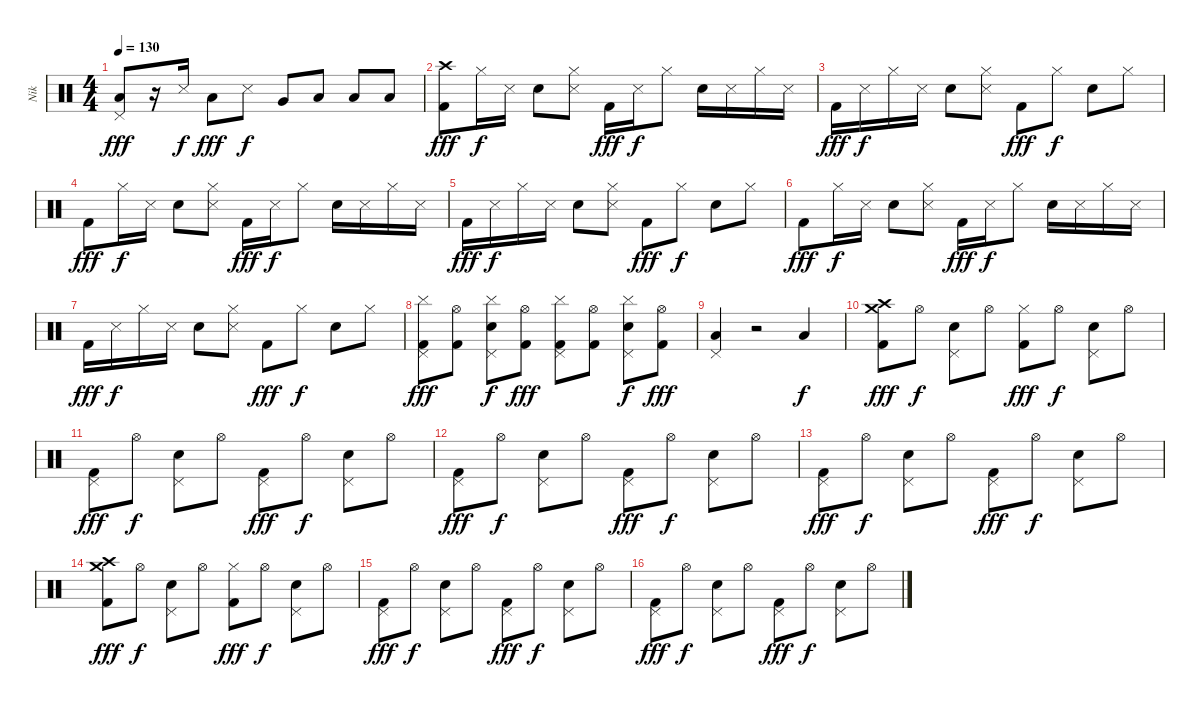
\track ("Nik" "Nik") {instrument percussion}
\staff {score}
\articulation defaults
\ts (4 4)
\tempo 130
\clef neutral
\ks c
("Pedal Hi-Hat (hit)" "Low Floor Tom (hit)").8{dy fff} r.16 "Snare (side stick) 3".16{dy f} "Low Floor Tom (hit)".8{dy fff} "Snare (side stick) 3".8{dy f} "Very Low Tom (hit)".8 "Low Tom (hit)".8 "Low Tom (hit)".8 "Low Floor Tom (hit)".8 |
("Crash high (hit)" "Kick (hit) 2").8{dy fff} "Hi-Hat (closed)".16{dy f} "Snare (side stick) 3".16 "Electric Snare (hit)".8 ("Hi-Hat (closed)" "Snare (side stick) 3").8 "Kick (hit) 2".16{dy fff} "Snare (side stick) 3".16{dy f} "Hi-Hat (closed)".8 "Electric Snare (hit)".16 "Snare (side stick) 3".16 "Hi-Hat (closed)".16 "Snare (side stick) 3".16 |
"Kick (hit) 2".16{dy fff} "Snare (side stick) 3".16{dy f} "Hi-Hat (closed)".16 "Snare (side stick) 3".16 "Electric Snare (hit)".8 ("Hi-Hat (closed)" "Snare (side stick) 3").8 "Kick (hit) 2".8{dy fff} "Hi-Hat (closed)".8{dy f} "Electric Snare (hit)".8 "Hi-Hat (closed)".8 |
"Kick (hit) 2".8{dy fff} "Hi-Hat (closed)".16{dy f} "Snare (side stick) 3".16 "Electric Snare (hit)".8 ("Hi-Hat (closed)" "Snare (side stick) 3").8 "Kick (hit) 2".16{dy fff} "Snare (side stick) 3".16{dy f} "Hi-Hat (closed)".8 "Electric Snare (hit)".16 "Snare (side stick) 3".16 "Hi-Hat (closed)".16 "Snare (side stick) 3".16 |
"Kick (hit) 2".16{dy fff} "Snare (side stick) 3".16{dy f} "Hi-Hat (closed)".16 "Snare (side stick) 3".16 "Electric Snare (hit)".8 ("Hi-Hat (closed)" "Snare (side stick) 3").8 "Kick (hit) 2".8{dy fff} "Hi-Hat (closed)".8{dy f} "Electric Snare (hit)".8 "Hi-Hat (closed)".8 |
"Kick (hit) 2".8{dy fff} "Hi-Hat (closed)".16{dy f} "Snare (side stick) 3".16 "Electric Snare (hit)".8 ("Hi-Hat (closed)" "Snare (side stick) 3").8 "Kick (hit) 2".16{dy fff} "Snare (side stick) 3".16{dy f} "Hi-Hat (closed)".8 "Electric Snare (hit)".16 "Snare (side stick) 3".16 "Hi-Hat (closed)".16 "Snare (side stick) 3".16 |
"Kick (hit) 2".16{dy fff} "Snare (side stick) 3".16{dy f} "Hi-Hat (closed)".16 "Snare (side stick) 3".16 "Electric Snare (hit)".8 ("Hi-Hat (closed)" "Snare (side stick) 3").8 "Kick (hit) 2".8{dy fff} "Hi-Hat (closed)".8{dy f} "Electric Snare (hit)".8 "Hi-Hat (closed)".8 |
("Pedal Hi-Hat (hit)" "Kick (hit) 2" "Cymbal (hit)").8{dy fff} ("Hi-Hat (open)" "Kick (hit) 2").8 ("Pedal Hi-Hat (hit)" "Electric Snare (hit)" "Cymbal (hit)").8{dy f} ("Hi-Hat (open)" "Kick (hit) 2").8{dy fff} ("Pedal Hi-Hat (hit)" "Kick (hit) 2" "Cymbal (hit)").8 ("Hi-Hat (open)" "Kick (hit) 2").8 ("Pedal Hi-Hat (hit)" "Electric Snare (hit)" "Cymbal (hit)").8{dy f} ("Hi-Hat (open)" "Kick (hit) 2").8{dy fff} |
("Pedal Hi-Hat (hit)" "Low Floor Tom (hit)").4 r.2 "Low Floor Tom (hit)".4{dy f} |
("Crash high (hit)" "Crash medium (hit)" "Kick (hit) 2").8{dy fff} "Hi-Hat (open)".8{dy f} ("Pedal Hi-Hat (hit)" "Electric Snare (hit)").8 "Hi-Hat (open)".8 ("Hi-Hat (closed)" "Kick (hit) 2").8{dy fff} "Hi-Hat (open)".8{dy f} ("Pedal Hi-Hat (hit)" "Electric Snare (hit)").8 "Hi-Hat (open)".8 |
("Pedal Hi-Hat (hit)" "Kick (hit) 2").8{dy fff} "Hi-Hat (open)".8{dy f} ("Pedal Hi-Hat (hit)" "Electric Snare (hit)").8 "Hi-Hat (open)".8 ("Pedal Hi-Hat (hit)" "Kick (hit) 2").8{dy fff} "Hi-Hat (open)".8{dy f} ("Pedal Hi-Hat (hit)" "Electric Snare (hit)").8 "Hi-Hat (open)".8 |
("Pedal Hi-Hat (hit)" "Kick (hit) 2").8{dy fff} "Hi-Hat (open)".8{dy f} ("Pedal Hi-Hat (hit)" "Electric Snare (hit)").8 "Hi-Hat (open)".8 ("Pedal Hi-Hat (hit)" "Kick (hit) 2").8{dy fff} "Hi-Hat (open)".8{dy f} ("Pedal Hi-Hat (hit)" "Electric Snare (hit)").8 "Hi-Hat (open)".8 |
("Pedal Hi-Hat (hit)" "Kick (hit) 2").8{dy fff} "Hi-Hat (open)".8{dy f} ("Pedal Hi-Hat (hit)" "Electric Snare (hit)").8 "Hi-Hat (open)".8 ("Pedal Hi-Hat (hit)" "Kick (hit) 2").8{dy fff} "Hi-Hat (open)".8{dy f} ("Pedal Hi-Hat (hit)" "Electric Snare (hit)").8 "Hi-Hat (open)".8 |
("Crash high (hit)" "Crash medium (hit)" "Kick (hit) 2").8{dy fff} "Hi-Hat (open)".8{dy f} ("Pedal Hi-Hat (hit)" "Electric Snare (hit)").8 "Hi-Hat (open)".8 ("Hi-Hat (closed)" "Kick (hit) 2").8{dy fff} "Hi-Hat (open)".8{dy f} ("Pedal Hi-Hat (hit)" "Electric Snare (hit)").8 "Hi-Hat (open)".8 |
("Pedal Hi-Hat (hit)" "Kick (hit) 2").8{dy fff} "Hi-Hat (open)".8{dy f} ("Pedal Hi-Hat (hit)" "Electric Snare (hit)").8 "Hi-Hat (open)".8 ("Pedal Hi-Hat (hit)" "Kick (hit) 2").8{dy fff} "Hi-Hat (open)".8{dy f} ("Pedal Hi-Hat (hit)" "Electric Snare (hit)").8 "Hi-Hat (open)".8 |
("Pedal Hi-Hat (hit)" "Kick (hit) 2").8{dy fff} "Hi-Hat (open)".8{dy f} ("Pedal Hi-Hat (hit)" "Electric Snare (hit)").8 "Hi-Hat (open)".8 ("Pedal Hi-Hat (hit)" "Kick (hit) 2").8{dy fff} "Hi-Hat (open)".8{dy f} ("Pedal Hi-Hat (hit)" "Electric Snare (hit)").8 "Hi-Hat (open)".8
